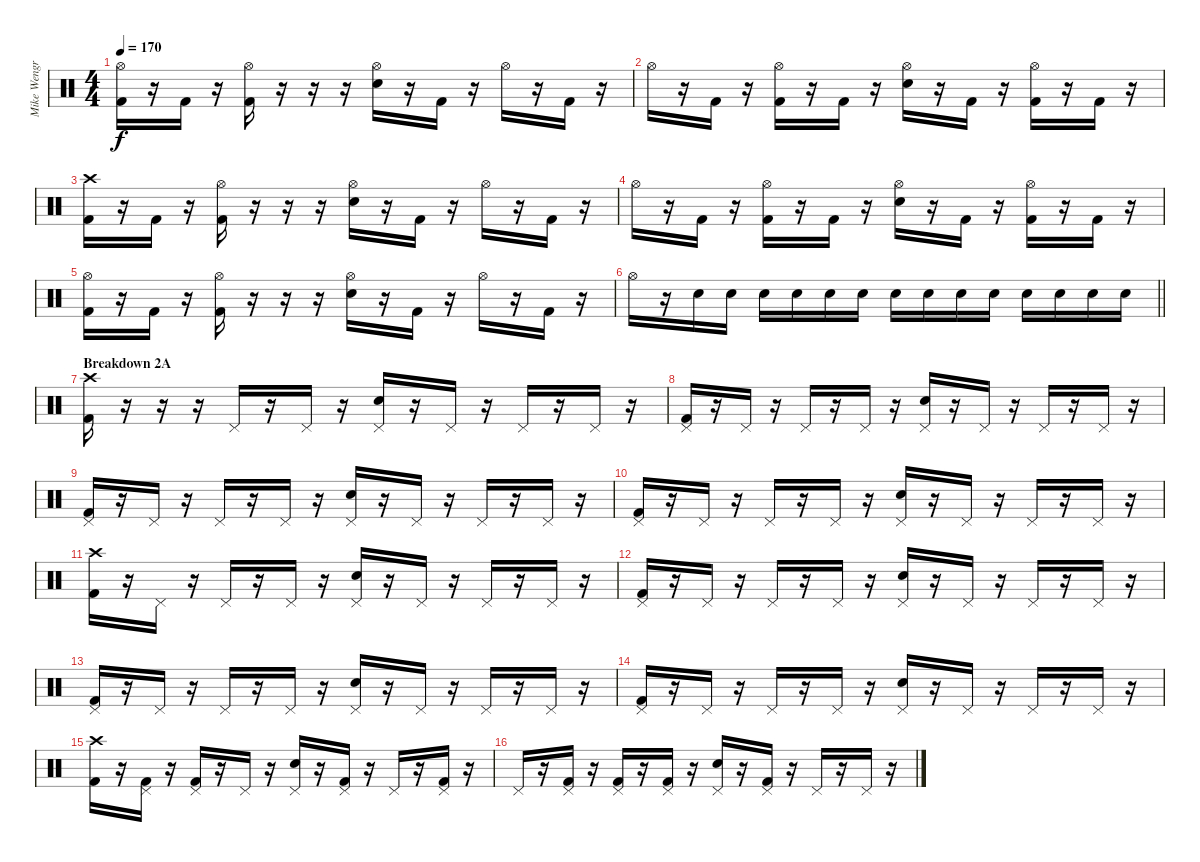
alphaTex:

\track ("Mike Wengren" "Mike Wengr") {instrument percussion}
\staff {score}
\articulation defaults
\ts (4 4)
\tempo 170
\clef neutral
\ks c
("Hi-Hat (open)" "Kick (hit) 2").16{dy f} r.16 "Kick (hit) 2".16 r.16 ("Hi-Hat (open)" "Kick (hit) 2").16 r.16 r.16 r.16 ("Hi-Hat (open)" "Snare (hit) 2").16 r.16 "Kick (hit) 2".16 r.16 "Hi-Hat (open)".16 r.16 "Kick (hit) 2".16 r.16 |
"Hi-Hat (open)".16 r.16 "Kick (hit) 2".16 r.16 ("Hi-Hat (open)" "Kick (hit) 2").16 r.16 "Kick (hit) 2".16 r.16 ("Hi-Hat (open)" "Snare (hit) 2").16 r.16 "Kick (hit) 2".16 r.16 ("Hi-Hat (open)" "Kick (hit) 2").16 r.16 "Kick (hit) 2".16 r.16 |
("Crash high (hit)" "Kick (hit) 2").16 r.16 "Kick (hit) 2".16 r.16 ("Hi-Hat (open)" "Kick (hit) 2").16 r.16 r.16 r.16 ("Hi-Hat (open)" "Snare (hit) 2").16 r.16 "Kick (hit) 2".16 r.16 "Hi-Hat (open)".16 r.16 "Kick (hit) 2".16 r.16 |
"Hi-Hat (open)".16 r.16 "Kick (hit) 2".16 r.16 ("Hi-Hat (open)" "Kick (hit) 2").16 r.16 "Kick (hit) 2".16 r.16 ("Hi-Hat (open)" "Snare (hit) 2").16 r.16 "Kick (hit) 2".16 r.16 ("Hi-Hat (open)" "Kick (hit) 2").16 r.16 "Kick (hit) 2".16 r.16 |
("Hi-Hat (open)" "Kick (hit) 2").16 r.16 "Kick (hit) 2".16 r.16 ("Hi-Hat (open)" "Kick (hit) 2").16 r.16 r.16 r.16 ("Hi-Hat (open)" "Snare (hit) 2").16 r.16 "Kick (hit) 2".16 r.16 "Hi-Hat (open)".16 r.16 "Kick (hit) 2".16 r.16 |
\barLineRight lightlight "Hi-Hat (open)".16
r.16 "Snare (hit) 2".16 "Snare (hit) 2".16 "Snare (hit) 2".16 "Snare (hit) 2".16 "Snare (hit) 2".16 "Snare (hit) 2".16 "Snare (hit) 2".16 "Snare (hit) 2".16 "Snare (hit) 2".16 "Snare (hit) 2".16 "Snare (hit) 2".16 "Snare (hit) 2".16 "Snare (hit) 2".16 "Snare (hit) 2".16 |
\section ("" "Breakdown 2A")
("Crash high (hit)" "Kick (hit) 2").16 r.16 r.16 r.16 "Pedal Hi-Hat (hit)".16 r.16 "Pedal Hi-Hat (hit)".16 r.16 ("Pedal Hi-Hat (hit)" "Snare (hit) 2").16 r.16 "Pedal Hi-Hat (hit)".16 r.16 "Pedal Hi-Hat (hit)".16 r.16 "Pedal Hi-Hat (hit)".16 r.16 |
("Pedal Hi-Hat (hit)" "Kick (hit) 2").16 r.16 "Pedal Hi-Hat (hit)".16 r.16 "Pedal Hi-Hat (hit)".16 r.16 "Pedal Hi-Hat (hit)".16 r.16 ("Pedal Hi-Hat (hit)" "Snare (hit) 2").16 r.16 "Pedal Hi-Hat (hit)".16 r.16 "Pedal Hi-Hat (hit)".16 r.16 "Pedal Hi-Hat (hit)".16 r.16 |
("Pedal Hi-Hat (hit)" "Kick (hit) 2").16 r.16 "Pedal Hi-Hat (hit)".16 r.16 "Pedal Hi-Hat (hit)".16 r.16 "Pedal Hi-Hat (hit)".16 r.16 ("Pedal Hi-Hat (hit)" "Snare (hit) 2").16 r.16 "Pedal Hi-Hat (hit)".16 r.16 "Pedal Hi-Hat (hit)".16 r.16 "Pedal Hi-Hat (hit)".16 r.16 |
("Pedal Hi-Hat (hit)" "Kick (hit) 2").16 r.16 "Pedal Hi-Hat (hit)".16 r.16 "Pedal Hi-Hat (hit)".16 r.16 "Pedal Hi-Hat (hit)".16 r.16 ("Pedal Hi-Hat (hit)" "Snare (hit) 2").16 r.16 "Pedal Hi-Hat (hit)".16 r.16 "Pedal Hi-Hat (hit)".16 r.16 "Pedal Hi-Hat (hit)".16 r.16 |
("Crash high (hit)" "Kick (hit) 2").16 r.16 "Pedal Hi-Hat (hit)".16 r.16 "Pedal Hi-Hat (hit)".16 r.16 "Pedal Hi-Hat (hit)".16 r.16 ("Pedal Hi-Hat (hit)" "Snare (hit) 2").16 r.16 "Pedal Hi-Hat (hit)".16 r.16 "Pedal Hi-Hat (hit)".16 r.16 "Pedal Hi-Hat (hit)".16 r.16 |
("Pedal Hi-Hat (hit)" "Kick (hit) 2").16 r.16 "Pedal Hi-Hat (hit)".16 r.16 "Pedal Hi-Hat (hit)".16 r.16 "Pedal Hi-Hat (hit)".16 r.16 ("Pedal Hi-Hat (hit)" "Snare (hit) 2").16 r.16 "Pedal Hi-Hat (hit)".16 r.16 "Pedal Hi-Hat (hit)".16 r.16 "Pedal Hi-Hat (hit)".16 r.16 |
("Pedal Hi-Hat (hit)" "Kick (hit) 2").16 r.16 "Pedal Hi-Hat (hit)".16 r.16 "Pedal Hi-Hat (hit)".16 r.16 "Pedal Hi-Hat (hit)".16 r.16 ("Pedal Hi-Hat (hit)" "Snare (hit) 2").16 r.16 "Pedal Hi-Hat (hit)".16 r.16 "Pedal Hi-Hat (hit)".16 r.16 "Pedal Hi-Hat (hit)".16 r.16 |
("Pedal Hi-Hat (hit)" "Kick (hit) 2").16 r.16 "Pedal Hi-Hat (hit)".16 r.16 "Pedal Hi-Hat (hit)".16 r.16 "Pedal Hi-Hat (hit)".16 r.16 ("Pedal Hi-Hat (hit)" "Snare (hit) 2").16 r.16 "Pedal Hi-Hat (hit)".16 r.16 "Pedal Hi-Hat (hit)".16 r.16 "Pedal Hi-Hat (hit)".16 r.16 |
("Crash high (hit)" "Kick (hit) 2").16 r.16 ("Pedal Hi-Hat (hit)" "Kick (hit) 2").16 r.16 ("Pedal Hi-Hat (hit)" "Kick (hit) 2").16 r.16 "Pedal Hi-Hat (hit)".16 r.16 ("Pedal Hi-Hat (hit)" "Snare (hit) 2").16 r.16 ("Pedal Hi-Hat (hit)" "Kick (hit) 2").16 r.16 "Pedal Hi-Hat (hit)".16 r.16 ("Pedal Hi-Hat (hit)" "Kick (hit) 2").16 r.16 |
"Pedal Hi-Hat (hit)".16 r.16 ("Pedal Hi-Hat (hit)" "Kick (hit) 2").16 r.16 ("Pedal Hi-Hat (hit)" "Kick (hit) 2").16 r.16 ("Pedal Hi-Hat (hit)" "Kick (hit) 2").16 r.16 ("Pedal Hi-Hat (hit)" "Snare (hit) 2").16 r.16 ("Pedal Hi-Hat (hit)" "Kick (hit) 2").16 r.16 "Pedal Hi-Hat (hit)".16 r.16 "Pedal Hi-Hat (hit)".16 r.16
